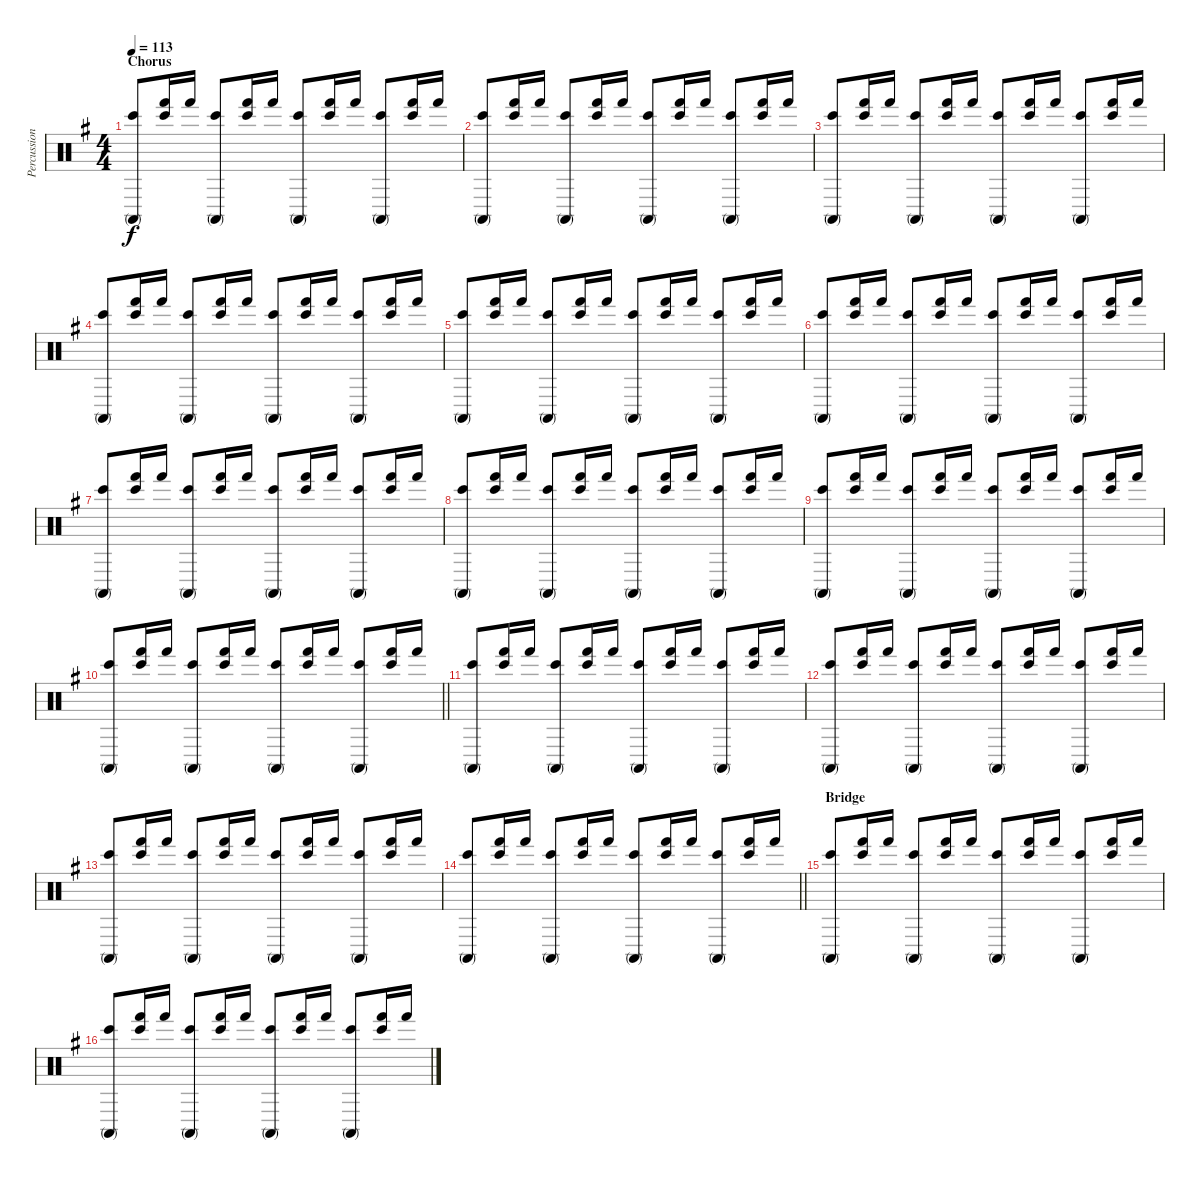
\track ("Percussion" "Percussion") {instrument percussion}
\staff {score}
\articulation defaults
\ts (4 4)
\section ("" "Chorus")
\tempo 113
\clef neutral
\ks g
("Bongo High (hit)" "Conga high (mute)").8{dy f} ("Bongo High (hit)" "Hand (hit)").16 "Hand (hit)".16 ("Bongo High (hit)" "Conga high (mute)").8 ("Bongo High (hit)" "Hand (hit)").16 "Hand (hit)".16 ("Bongo High (hit)" "Conga high (mute)").8 ("Bongo High (hit)" "Hand (hit)").16 "Hand (hit)".16 ("Bongo High (hit)" "Conga high (mute)").8 ("Bongo High (hit)" "Hand (hit)").16 "Hand (hit)".16 |
("Bongo High (hit)" "Conga high (mute)").8 ("Bongo High (hit)" "Hand (hit)").16 "Hand (hit)".16 ("Bongo High (hit)" "Conga high (mute)").8 ("Bongo High (hit)" "Hand (hit)").16 "Hand (hit)".16 ("Bongo High (hit)" "Conga high (mute)").8 ("Bongo High (hit)" "Hand (hit)").16 "Hand (hit)".16 ("Bongo High (hit)" "Conga high (mute)").8 ("Bongo High (hit)" "Hand (hit)").16 "Hand (hit)".16 |
("Bongo High (hit)" "Conga high (mute)").8 ("Bongo High (hit)" "Hand (hit)").16 "Hand (hit)".16 ("Bongo High (hit)" "Conga high (mute)").8 ("Bongo High (hit)" "Hand (hit)").16 "Hand (hit)".16 ("Bongo High (hit)" "Conga high (mute)").8 ("Bongo High (hit)" "Hand (hit)").16 "Hand (hit)".16 ("Bongo High (hit)" "Conga high (mute)").8 ("Bongo High (hit)" "Hand (hit)").16 "Hand (hit)".16 |
("Bongo High (hit)" "Conga high (mute)").8 ("Bongo High (hit)" "Hand (hit)").16 "Hand (hit)".16 ("Bongo High (hit)" "Conga high (mute)").8 ("Bongo High (hit)" "Hand (hit)").16 "Hand (hit)".16 ("Bongo High (hit)" "Conga high (mute)").8 ("Bongo High (hit)" "Hand (hit)").16 "Hand (hit)".16 ("Bongo High (hit)" "Conga high (mute)").8 ("Bongo High (hit)" "Hand (hit)").16 "Hand (hit)".16 |
("Bongo High (hit)" "Conga high (mute)").8 ("Bongo High (hit)" "Hand (hit)").16 "Hand (hit)".16 ("Bongo High (hit)" "Conga high (mute)").8 ("Bongo High (hit)" "Hand (hit)").16 "Hand (hit)".16 ("Bongo High (hit)" "Conga high (mute)").8 ("Bongo High (hit)" "Hand (hit)").16 "Hand (hit)".16 ("Bongo High (hit)" "Conga high (mute)").8 ("Bongo High (hit)" "Hand (hit)").16 "Hand (hit)".16 |
("Bongo High (hit)" "Conga high (mute)").8 ("Bongo High (hit)" "Hand (hit)").16 "Hand (hit)".16 ("Bongo High (hit)" "Conga high (mute)").8 ("Bongo High (hit)" "Hand (hit)").16 "Hand (hit)".16 ("Bongo High (hit)" "Conga high (mute)").8 ("Bongo High (hit)" "Hand (hit)").16 "Hand (hit)".16 ("Bongo High (hit)" "Conga high (mute)").8 ("Bongo High (hit)" "Hand (hit)").16 "Hand (hit)".16 |
("Bongo High (hit)" "Conga high (mute)").8 ("Bongo High (hit)" "Hand (hit)").16 "Hand (hit)".16 ("Bongo High (hit)" "Conga high (mute)").8 ("Bongo High (hit)" "Hand (hit)").16 "Hand (hit)".16 ("Bongo High (hit)" "Conga high (mute)").8 ("Bongo High (hit)" "Hand (hit)").16 "Hand (hit)".16 ("Bongo High (hit)" "Conga high (mute)").8 ("Bongo High (hit)" "Hand (hit)").16 "Hand (hit)".16 |
("Bongo High (hit)" "Conga high (mute)").8 ("Bongo High (hit)" "Hand (hit)").16 "Hand (hit)".16 ("Bongo High (hit)" "Conga high (mute)").8 ("Bongo High (hit)" "Hand (hit)").16 "Hand (hit)".16 ("Bongo High (hit)" "Conga high (mute)").8 ("Bongo High (hit)" "Hand (hit)").16 "Hand (hit)".16 ("Bongo High (hit)" "Conga high (mute)").8 ("Bongo High (hit)" "Hand (hit)").16 "Hand (hit)".16 |
("Bongo High (hit)" "Conga high (mute)").8 ("Bongo High (hit)" "Hand (hit)").16 "Hand (hit)".16 ("Bongo High (hit)" "Conga high (mute)").8 ("Bongo High (hit)" "Hand (hit)").16 "Hand (hit)".16 ("Bongo High (hit)" "Conga high (mute)").8 ("Bongo High (hit)" "Hand (hit)").16 "Hand (hit)".16 ("Bongo High (hit)" "Conga high (mute)").8 ("Bongo High (hit)" "Hand (hit)").16 "Hand (hit)".16 |
\barLineRight lightlight
("Bongo High (hit)" "Conga high (mute)").8 ("Bongo High (hit)" "Hand (hit)").16 "Hand (hit)".16 ("Bongo High (hit)" "Conga high (mute)").8 ("Bongo High (hit)" "Hand (hit)").16 "Hand (hit)".16 ("Bongo High (hit)" "Conga high (mute)").8 ("Bongo High (hit)" "Hand (hit)").16 "Hand (hit)".16 ("Bongo High (hit)" "Conga high (mute)").8 ("Bongo High (hit)" "Hand (hit)").16 "Hand (hit)".16 |
("Bongo High (hit)" "Conga high (mute)").8 ("Bongo High (hit)" "Hand (hit)").16 "Hand (hit)".16 ("Bongo High (hit)" "Conga high (mute)").8 ("Bongo High (hit)" "Hand (hit)").16 "Hand (hit)".16 ("Bongo High (hit)" "Conga high (mute)").8 ("Bongo High (hit)" "Hand (hit)").16 "Hand (hit)".16 ("Bongo High (hit)" "Conga high (mute)").8 ("Bongo High (hit)" "Hand (hit)").16 "Hand (hit)".16 |
("Bongo High (hit)" "Conga high (mute)").8 ("Bongo High (hit)" "Hand (hit)").16 "Hand (hit)".16 ("Bongo High (hit)" "Conga high (mute)").8 ("Bongo High (hit)" "Hand (hit)").16 "Hand (hit)".16 ("Bongo High (hit)" "Conga high (mute)").8 ("Bongo High (hit)" "Hand (hit)").16 "Hand (hit)".16 ("Bongo High (hit)" "Conga high (mute)").8 ("Bongo High (hit)" "Hand (hit)").16 "Hand (hit)".16 |
("Bongo High (hit)" "Conga high (mute)").8 ("Bongo High (hit)" "Hand (hit)").16 "Hand (hit)".16 ("Bongo High (hit)" "Conga high (mute)").8 ("Bongo High (hit)" "Hand (hit)").16 "Hand (hit)".16 ("Bongo High (hit)" "Conga high (mute)").8 ("Bongo High (hit)" "Hand (hit)").16 "Hand (hit)".16 ("Bongo High (hit)" "Conga high (mute)").8 ("Bongo High (hit)" "Hand (hit)").16 "Hand (hit)".16 |
\barLineRight lightlight
("Bongo High (hit)" "Conga high (mute)").8 ("Bongo High (hit)" "Hand (hit)").16 "Hand (hit)".16 ("Bongo High (hit)" "Conga high (mute)").8 ("Bongo High (hit)" "Hand (hit)").16 "Hand (hit)".16 ("Bongo High (hit)" "Conga high (mute)").8 ("Bongo High (hit)" "Hand (hit)").16 "Hand (hit)".16 ("Bongo High (hit)" "Conga high (mute)").8 ("Bongo High (hit)" "Hand (hit)").16 "Hand (hit)".16 |
\section ("" "Bridge")
("Bongo High (hit)" "Conga high (mute)").8 ("Bongo High (hit)" "Hand (hit)").16 "Hand (hit)".16 ("Bongo High (hit)" "Conga high (mute)").8 ("Bongo High (hit)" "Hand (hit)").16 "Hand (hit)".16 ("Bongo High (hit)" "Conga high (mute)").8 ("Bongo High (hit)" "Hand (hit)").16 "Hand (hit)".16 ("Bongo High (hit)" "Conga high (mute)").8 ("Bongo High (hit)" "Hand (hit)").16 "Hand (hit)".16 |
("Bongo High (hit)" "Conga high (mute)").8 ("Bongo High (hit)" "Hand (hit)").16 "Hand (hit)".16 ("Bongo High (hit)" "Conga high (mute)").8 ("Bongo High (hit)" "Hand (hit)").16 "Hand (hit)".16 ("Bongo High (hit)" "Conga high (mute)").8 ("Bongo High (hit)" "Hand (hit)").16 "Hand (hit)".16 ("Bongo High (hit)" "Conga high (mute)").8 ("Bongo High (hit)" "Hand (hit)").16 "Hand (hit)".16
